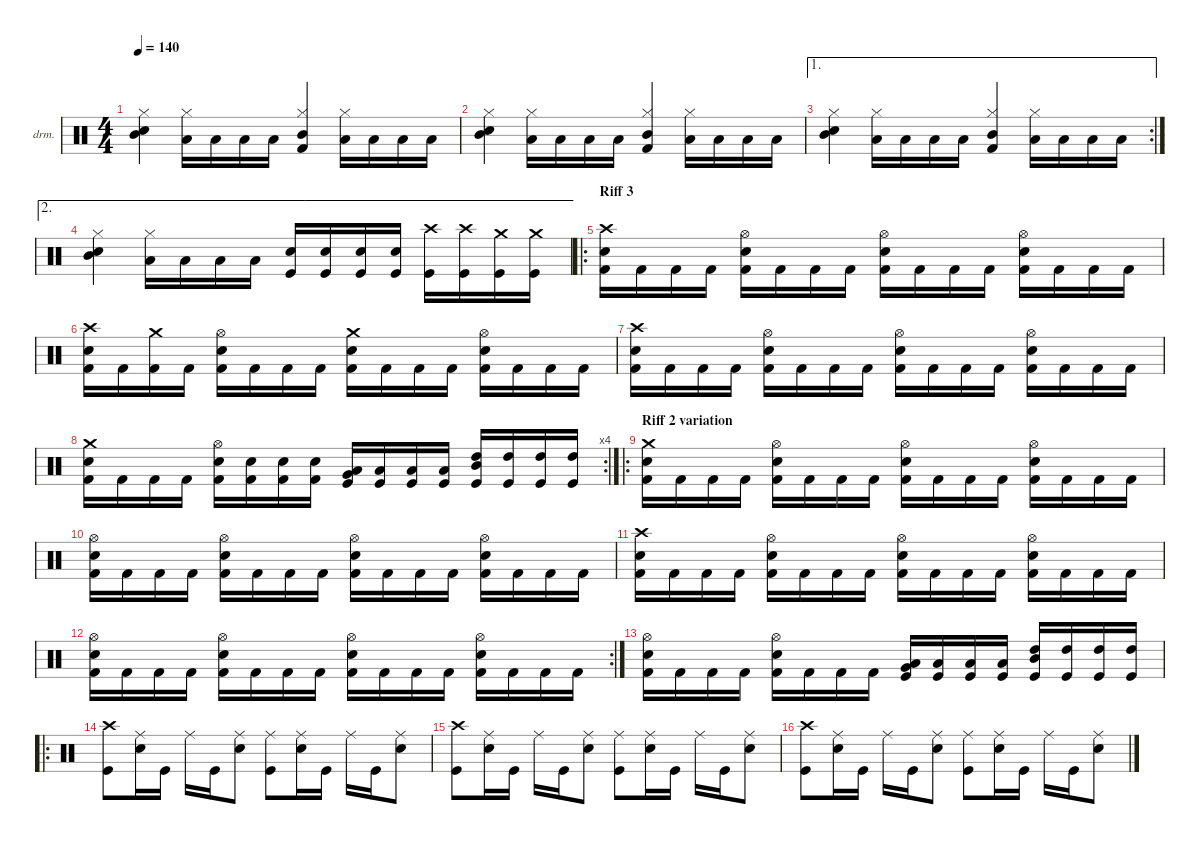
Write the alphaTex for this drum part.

\defaultSystemsLayout 4
\hideDynamics
\bracketExtendMode nobrackets
\firstSystemTrackNameOrientation horizontal
\otherSystemsTrackNameOrientation horizontal
\track ("Drumkit" "drm.") {instrument percussion}
\staff {score}
\articulation defaults
\ts (4 4)
\tempo 140
\clef neutral
\ks c
("Snare (hit) 2" "Mid Tom (hit)" "Hi-Hat (closed)").4{dy fff} ("Low Tom (hit)" "Hi-Hat (closed)").16 "Low Tom (hit)".16 "Low Tom (hit)".16 "Low Tom (hit)".16 ("Mid Tom (hit)" "Kick (hit) 2" "Hi-Hat (closed)").4 ("Low Tom (hit)" "Hi-Hat (closed)").16 "Low Tom (hit)".16 "Low Tom (hit)".16 "Low Tom (hit)".16 |
("Snare (hit) 2" "Mid Tom (hit)" "Hi-Hat (closed)").4 ("Low Tom (hit)" "Hi-Hat (closed)").16 "Low Tom (hit)".16 "Low Tom (hit)".16 "Low Tom (hit)".16 ("Mid Tom (hit)" "Kick (hit) 2" "Hi-Hat (closed)").4 ("Low Tom (hit)" "Hi-Hat (closed)").16 "Low Tom (hit)".16 "Low Tom (hit)".16 "Low Tom (hit)".16 |
\ae 1
\rc 2
("Snare (hit) 2" "Mid Tom (hit)" "Hi-Hat (closed)").4 ("Low Tom (hit)" "Hi-Hat (closed)").16 "Low Tom (hit)".16 "Low Tom (hit)".16 "Low Tom (hit)".16 ("Mid Tom (hit)" "Kick (hit) 2" "Hi-Hat (closed)").4 ("Low Tom (hit)" "Hi-Hat (closed)").16 "Low Tom (hit)".16 "Low Tom (hit)".16 "Low Tom (hit)".16 |
\ae 2
("Snare (hit) 2" "Mid Tom (hit)" "Hi-Hat (closed)").4 ("Low Tom (hit)" "Hi-Hat (closed)").16 "Low Tom (hit)".16 "Low Tom (hit)".16 "Low Tom (hit)".16 ("Kick (hit)" "Snare (hit) 2").16{dy f} ("Kick (hit)" "Snare (hit) 2").16 ("Kick (hit)" "Snare (hit) 2").16 ("Kick (hit)" "Snare (hit) 2").16 ("Kick (hit)" "Crash high (hit)").16 ("Kick (hit)" "Crash high (hit)").16 ("Kick (hit)" "Crash medium (hit)").16 ("Kick (hit)" "Crash medium (hit)").16 |
\ro
\section ("" "Riff 3")
("Crash high (hit)" "Snare (hit) 2" "Kick (hit) 2").16 "Kick (hit) 2".16 "Kick (hit) 2".16 "Kick (hit) 2".16 ("Hi-Hat (open)" "Snare (hit) 2" "Kick (hit) 2").16 "Kick (hit) 2".16 "Kick (hit) 2".16 "Kick (hit) 2".16 ("Hi-Hat (open)" "Snare (hit) 2" "Kick (hit) 2").16 "Kick (hit) 2".16 "Kick (hit) 2".16 "Kick (hit) 2".16 ("Hi-Hat (open)" "Snare (hit) 2" "Kick (hit) 2").16 "Kick (hit) 2".16 "Kick (hit) 2".16 "Kick (hit) 2".16 |
("Crash high (hit)" "Snare (hit) 2" "Kick (hit) 2").16 "Kick (hit) 2".16 ("Kick (hit) 2" "Crash medium (hit)").16 "Kick (hit) 2".16 ("Hi-Hat (open)" "Snare (hit) 2" "Kick (hit) 2").16 "Kick (hit) 2".16 "Kick (hit) 2".16 "Kick (hit) 2".16 ("Snare (hit) 2" "Kick (hit) 2" "Crash medium (hit)").16 "Kick (hit) 2".16 "Kick (hit) 2".16 "Kick (hit) 2".16 ("Hi-Hat (open)" "Snare (hit) 2" "Kick (hit) 2").16 "Kick (hit) 2".16 "Kick (hit) 2".16 "Kick (hit) 2".16 |
("Crash high (hit)" "Snare (hit) 2" "Kick (hit) 2").16 "Kick (hit) 2".16 "Kick (hit) 2".16 "Kick (hit) 2".16 ("Hi-Hat (open)" "Snare (hit) 2" "Kick (hit) 2").16 "Kick (hit) 2".16 "Kick (hit) 2".16 "Kick (hit) 2".16 ("Hi-Hat (open)" "Snare (hit) 2" "Kick (hit) 2").16 "Kick (hit) 2".16 "Kick (hit) 2".16 "Kick (hit) 2".16 ("Hi-Hat (open)" "Snare (hit) 2" "Kick (hit) 2").16 "Kick (hit) 2".16 "Kick (hit) 2".16 "Kick (hit) 2".16 |
\rc 4
("Snare (hit) 2" "Kick (hit) 2" "Crash medium (hit)").16 "Kick (hit) 2".16 "Kick (hit) 2".16 "Kick (hit) 2".16 ("Hi-Hat (open)" "Snare (hit) 2" "Kick (hit) 2").16 ("Kick (hit) 2" "Snare (hit) 2").16 ("Kick (hit) 2" "Snare (hit) 2").16 ("Kick (hit) 2" "Snare (hit) 2").16 ("Kick (hit)" "Very Low Tom (hit)" "Low Tom (hit)").16 ("Kick (hit)" "Low Tom (hit)").16 ("Kick (hit)" "Low Tom (hit)").16 ("Kick (hit)" "Low Tom (hit)").16 ("High Tom (hit)" "Mid Tom (hit)" "Kick (hit)").16 ("Kick (hit)" "High Tom (hit)").16 ("High Tom (hit)" "Kick (hit)").16 ("High Tom (hit)" "Kick (hit)").16 |
\ro
\section ("" "Riff 2 variation")
("Crash medium (hit)" "Snare (hit) 2" "Kick (hit) 2").16{dy mf} "Kick (hit) 2".16 "Kick (hit) 2".16 "Kick (hit) 2".16 ("Hi-Hat (open)" "Snare (hit) 2" "Kick (hit) 2").16 "Kick (hit) 2".16 "Kick (hit) 2".16 "Kick (hit) 2".16 ("Hi-Hat (open)" "Snare (hit) 2" "Kick (hit) 2").16 "Kick (hit) 2".16 "Kick (hit) 2".16 "Kick (hit) 2".16 ("Hi-Hat (open)" "Snare (hit) 2" "Kick (hit) 2").16 "Kick (hit) 2".16 "Kick (hit) 2".16 "Kick (hit) 2".16 |
("Hi-Hat (open)" "Snare (hit) 2" "Kick (hit) 2").16 "Kick (hit) 2".16 "Kick (hit) 2".16 "Kick (hit) 2".16 ("Hi-Hat (open)" "Snare (hit) 2" "Kick (hit) 2").16 "Kick (hit) 2".16 "Kick (hit) 2".16 "Kick (hit) 2".16 ("Hi-Hat (open)" "Snare (hit) 2" "Kick (hit) 2").16 "Kick (hit) 2".16 "Kick (hit) 2".16 "Kick (hit) 2".16 ("Hi-Hat (open)" "Snare (hit) 2" "Kick (hit) 2").16 "Kick (hit) 2".16 "Kick (hit) 2".16 "Kick (hit) 2".16 |
("Crash high (hit)" "Snare (hit) 2" "Kick (hit) 2").16 "Kick (hit) 2".16 "Kick (hit) 2".16 "Kick (hit) 2".16 ("Hi-Hat (open)" "Snare (hit) 2" "Kick (hit) 2").16 "Kick (hit) 2".16 "Kick (hit) 2".16 "Kick (hit) 2".16 ("Hi-Hat (open)" "Snare (hit) 2" "Kick (hit) 2").16 "Kick (hit) 2".16 "Kick (hit) 2".16 "Kick (hit) 2".16 ("Hi-Hat (open)" "Snare (hit) 2" "Kick (hit) 2").16 "Kick (hit) 2".16 "Kick (hit) 2".16 "Kick (hit) 2".16 |
\rc 2
("Hi-Hat (open)" "Snare (hit) 2" "Kick (hit) 2").16 "Kick (hit) 2".16 "Kick (hit) 2".16 "Kick (hit) 2".16 ("Hi-Hat (open)" "Snare (hit) 2" "Kick (hit) 2").16 "Kick (hit) 2".16 "Kick (hit) 2".16 "Kick (hit) 2".16 ("Hi-Hat (open)" "Snare (hit) 2" "Kick (hit) 2").16 "Kick (hit) 2".16 "Kick (hit) 2".16 "Kick (hit) 2".16 ("Hi-Hat (open)" "Snare (hit) 2" "Kick (hit) 2").16 "Kick (hit) 2".16 "Kick (hit) 2".16 "Kick (hit) 2".16 |
("Hi-Hat (open)" "Snare (hit) 2" "Kick (hit) 2").16 "Kick (hit) 2".16 "Kick (hit) 2".16 "Kick (hit) 2".16 ("Hi-Hat (open)" "Snare (hit) 2" "Kick (hit) 2").16 "Kick (hit) 2".16 "Kick (hit) 2".16 "Kick (hit) 2".16 ("Kick (hit)" "Very Low Tom (hit)" "Low Tom (hit)").16{dy f} ("Kick (hit)" "Low Tom (hit)").16 ("Kick (hit)" "Low Tom (hit)").16 ("Kick (hit)" "Low Tom (hit)").16 ("High Tom (hit)" "Mid Tom (hit)" "Kick (hit)").16 ("Kick (hit)" "High Tom (hit)").16 ("High Tom (hit)" "Kick (hit)").16 ("High Tom (hit)" "Kick (hit)").16 |
\ro
("Crash high (hit)" "Kick (hit)").8 ("Ride (middle)" "Snare (hit) 2").16 "Kick (hit)".16 "Ride (middle)".16 "Kick (hit)".16 ("Ride (middle)" "Snare (hit) 2").8 ("Ride (middle)" "Kick (hit)").8 ("Ride (middle)" "Snare (hit) 2").16 "Kick (hit)".16 "Ride (middle)".16 "Kick (hit)".16 ("Ride (middle)" "Snare (hit) 2").8 |
("Crash high (hit)" "Kick (hit)").8 ("Ride (middle)" "Snare (hit) 2").16 "Kick (hit)".16 "Ride (middle)".16 "Kick (hit)".16 ("Ride (middle)" "Snare (hit) 2").8 ("Ride (middle)" "Kick (hit)").8 ("Ride (middle)" "Snare (hit) 2").16 "Kick (hit)".16 "Ride (middle)".16 "Kick (hit)".16 ("Ride (middle)" "Snare (hit) 2").8 |
("Crash high (hit)" "Kick (hit)").8 ("Ride (middle)" "Snare (hit) 2").16 "Kick (hit)".16 "Ride (middle)".16 "Kick (hit)".16 ("Ride (middle)" "Snare (hit) 2").8 ("Ride (middle)" "Kick (hit)").8 ("Ride (middle)" "Snare (hit) 2").16 "Kick (hit)".16 "Ride (middle)".16 "Kick (hit)".16 ("Ride (middle)" "Snare (hit) 2").8
